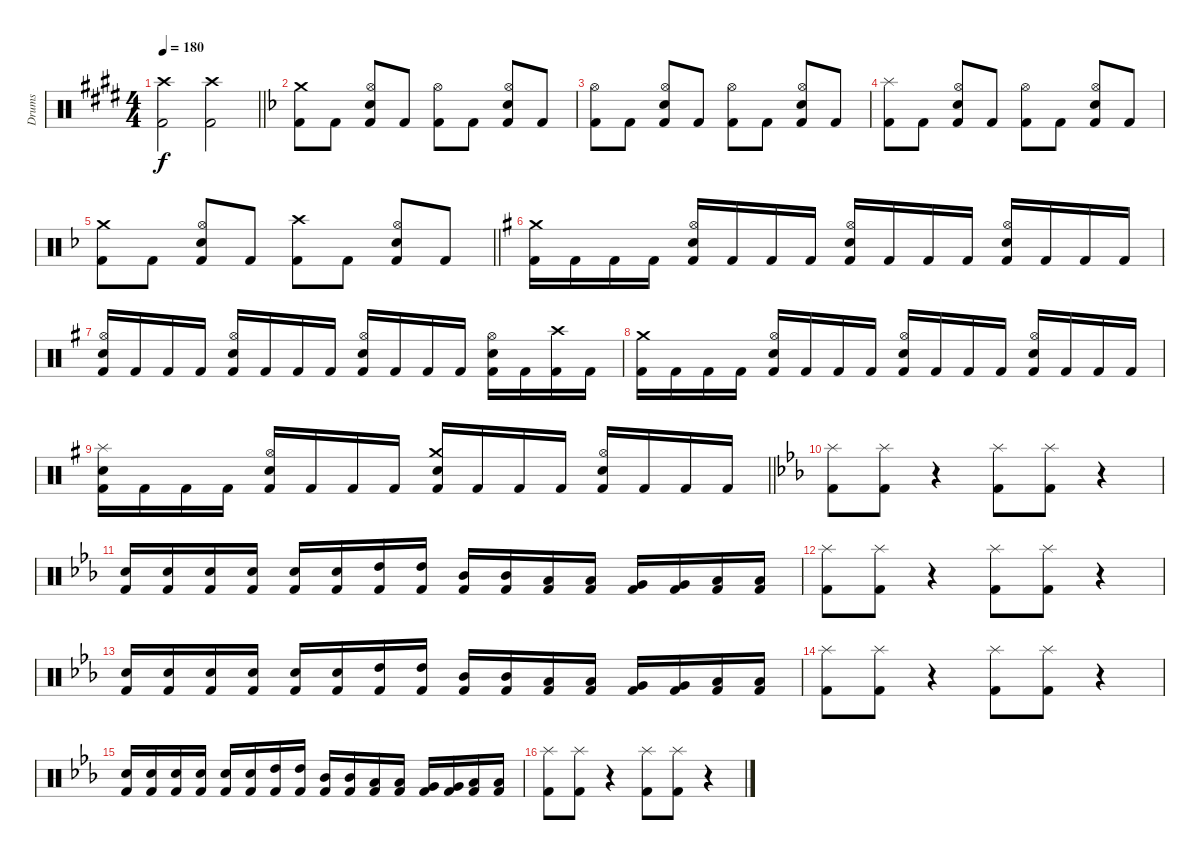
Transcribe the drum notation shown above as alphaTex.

\track ("Drums" "Drums") {instrument percussion}
\staff {score}
\articulation defaults
\ts (4 4)
\tempo 180
\clef neutral
\barLineRight lightlight
\ks e
("Crash high (hit)" "Kick (hit) 2").2{dy f} ("Crash high (hit)" "Kick (hit) 2").2 |
\section ("" "")
\ks f
("Crash medium (hit)" "Kick (hit) 2").8 "Kick (hit) 2".8 ("Hi-Hat (open)" "Snare (hit) 2" "Kick (hit) 2").8 "Kick (hit) 2".8 ("Hi-Hat (open)" "Kick (hit) 2").8 "Kick (hit) 2".8 ("Hi-Hat (open)" "Snare (hit) 2" "Kick (hit) 2").8 "Kick (hit) 2".8 |
("Hi-Hat (open)" "Kick (hit) 2").8 "Kick (hit) 2".8 ("Hi-Hat (open)" "Snare (hit) 2" "Kick (hit) 2").8 "Kick (hit) 2".8 ("Hi-Hat (open)" "Kick (hit) 2").8 "Kick (hit) 2".8 ("Hi-Hat (open)" "Snare (hit) 2" "Kick (hit) 2").8 "Kick (hit) 2".8 |
("Splash (hit)" "Kick (hit) 2").8 "Kick (hit) 2".8 ("Hi-Hat (open)" "Snare (hit) 2" "Kick (hit) 2").8 "Kick (hit) 2".8 ("Hi-Hat (open)" "Kick (hit) 2").8 "Kick (hit) 2".8 ("Hi-Hat (open)" "Snare (hit) 2" "Kick (hit) 2").8 "Kick (hit) 2".8 |
\barLineRight lightlight
("Crash medium (hit)" "Kick (hit) 2").8 "Kick (hit) 2".8 ("Hi-Hat (open)" "Snare (hit) 2" "Kick (hit) 2").8 "Kick (hit) 2".8 ("Crash high (hit)" "Kick (hit) 2").8 "Kick (hit) 2".8 ("Hi-Hat (open)" "Snare (hit) 2" "Kick (hit) 2").8 "Kick (hit) 2".8 |
\section ("" "")
\ks g
("Crash medium (hit)" "Kick (hit) 2").16 "Kick (hit) 2".16 "Kick (hit) 2".16 "Kick (hit) 2".16 ("Hi-Hat (open)" "Snare (hit) 2" "Kick (hit) 2").16 "Kick (hit) 2".16 "Kick (hit) 2".16 "Kick (hit) 2".16 ("Hi-Hat (open)" "Snare (hit) 2" "Kick (hit) 2").16 "Kick (hit) 2".16 "Kick (hit) 2".16 "Kick (hit) 2".16 ("Hi-Hat (open)" "Snare (hit) 2" "Kick (hit) 2").16 "Kick (hit) 2".16 "Kick (hit) 2".16 "Kick (hit) 2".16 |
("Hi-Hat (open)" "Snare (hit) 2" "Kick (hit) 2").16 "Kick (hit) 2".16 "Kick (hit) 2".16 "Kick (hit) 2".16 ("Hi-Hat (open)" "Snare (hit) 2" "Kick (hit) 2").16 "Kick (hit) 2".16 "Kick (hit) 2".16 "Kick (hit) 2".16 ("Hi-Hat (open)" "Snare (hit) 2" "Kick (hit) 2").16 "Kick (hit) 2".16 "Kick (hit) 2".16 "Kick (hit) 2".16 ("Hi-Hat (open)" "Snare (hit) 2" "Kick (hit) 2").16 "Kick (hit) 2".16 ("Crash high (hit)" "Kick (hit) 2").16 "Kick (hit) 2".16 |
("Crash medium (hit)" "Kick (hit) 2").16 "Kick (hit) 2".16 "Kick (hit) 2".16 "Kick (hit) 2".16 ("Hi-Hat (open)" "Snare (hit) 2" "Kick (hit) 2").16 "Kick (hit) 2".16 "Kick (hit) 2".16 "Kick (hit) 2".16 ("Hi-Hat (open)" "Snare (hit) 2" "Kick (hit) 2").16 "Kick (hit) 2".16 "Kick (hit) 2".16 "Kick (hit) 2".16 ("Hi-Hat (open)" "Snare (hit) 2" "Kick (hit) 2").16 "Kick (hit) 2".16 "Kick (hit) 2".16 "Kick (hit) 2".16 |
\barLineRight lightlight
("Splash (hit)" "Snare (hit) 2" "Kick (hit) 2").16 "Kick (hit) 2".16 "Kick (hit) 2".16 "Kick (hit) 2".16 ("Hi-Hat (open)" "Snare (hit) 2" "Kick (hit) 2").16 "Kick (hit) 2".16 "Kick (hit) 2".16 "Kick (hit) 2".16 ("Crash medium (hit)" "Snare (hit) 2" "Kick (hit) 2").16 "Kick (hit) 2".16 "Kick (hit) 2".16 "Kick (hit) 2".16 ("Hi-Hat (open)" "Snare (hit) 2" "Kick (hit) 2").16 "Kick (hit) 2".16 "Kick (hit) 2".16 "Kick (hit) 2".16 |
\section ("" "")
\ks eb
("Splash (hit)" "Kick (hit) 2").8 ("Splash (hit)" "Kick (hit) 2").8 r.4 ("Splash (hit)" "Kick (hit) 2").8 ("Splash (hit)" "Kick (hit) 2").8 r.4 |
("Snare (hit) 2" "Kick (hit) 2").16 ("Snare (hit) 2" "Kick (hit) 2").16 ("Snare (hit) 2" "Kick (hit) 2").16 ("Snare (hit) 2" "Kick (hit) 2").16 ("Snare (hit) 2" "Kick (hit) 2").16 ("Snare (hit) 2" "Kick (hit) 2").16 ("High Tom (hit)" "Kick (hit) 2").16 ("High Tom (hit)" "Kick (hit) 2").16 ("Mid Tom (hit)" "Kick (hit) 2").16 ("Mid Tom (hit)" "Kick (hit) 2").16 ("Low Tom (hit)" "Kick (hit) 2").16 ("Low Tom (hit)" "Kick (hit) 2").16 ("Very Low Tom (hit)" "Kick (hit) 2").16 ("Very Low Tom (hit)" "Kick (hit) 2").16 ("Low Floor Tom (hit)" "Kick (hit) 2").16 ("Low Floor Tom (hit)" "Kick (hit) 2").16 |
("Splash (hit)" "Kick (hit) 2").8 ("Splash (hit)" "Kick (hit) 2").8 r.4 ("Splash (hit)" "Kick (hit) 2").8 ("Splash (hit)" "Kick (hit) 2").8 r.4 |
("Snare (hit) 2" "Kick (hit) 2").16 ("Snare (hit) 2" "Kick (hit) 2").16 ("Snare (hit) 2" "Kick (hit) 2").16 ("Snare (hit) 2" "Kick (hit) 2").16 ("Snare (hit) 2" "Kick (hit) 2").16 ("Snare (hit) 2" "Kick (hit) 2").16 ("High Tom (hit)" "Kick (hit) 2").16 ("High Tom (hit)" "Kick (hit) 2").16 ("Mid Tom (hit)" "Kick (hit) 2").16 ("Mid Tom (hit)" "Kick (hit) 2").16 ("Low Tom (hit)" "Kick (hit) 2").16 ("Low Tom (hit)" "Kick (hit) 2").16 ("Very Low Tom (hit)" "Kick (hit) 2").16 ("Very Low Tom (hit)" "Kick (hit) 2").16 ("Low Floor Tom (hit)" "Kick (hit) 2").16 ("Low Floor Tom (hit)" "Kick (hit) 2").16 |
("Splash (hit)" "Kick (hit) 2").8 ("Splash (hit)" "Kick (hit) 2").8 r.4 ("Splash (hit)" "Kick (hit) 2").8 ("Splash (hit)" "Kick (hit) 2").8 r.4 |
("Snare (hit) 2" "Kick (hit) 2").16 ("Snare (hit) 2" "Kick (hit) 2").16 ("Snare (hit) 2" "Kick (hit) 2").16 ("Snare (hit) 2" "Kick (hit) 2").16 ("Snare (hit) 2" "Kick (hit) 2").16 ("Snare (hit) 2" "Kick (hit) 2").16 ("High Tom (hit)" "Kick (hit) 2").16 ("High Tom (hit)" "Kick (hit) 2").16 ("Mid Tom (hit)" "Kick (hit) 2").16 ("Mid Tom (hit)" "Kick (hit) 2").16 ("Low Tom (hit)" "Kick (hit) 2").16 ("Low Tom (hit)" "Kick (hit) 2").16 ("Very Low Tom (hit)" "Kick (hit) 2").16 ("Very Low Tom (hit)" "Kick (hit) 2").16 ("Low Floor Tom (hit)" "Kick (hit) 2").16 ("Low Floor Tom (hit)" "Kick (hit) 2").16 |
("Splash (hit)" "Kick (hit) 2").8 ("Splash (hit)" "Kick (hit) 2").8 r.4 ("Splash (hit)" "Kick (hit) 2").8 ("Splash (hit)" "Kick (hit) 2").8 r.4
